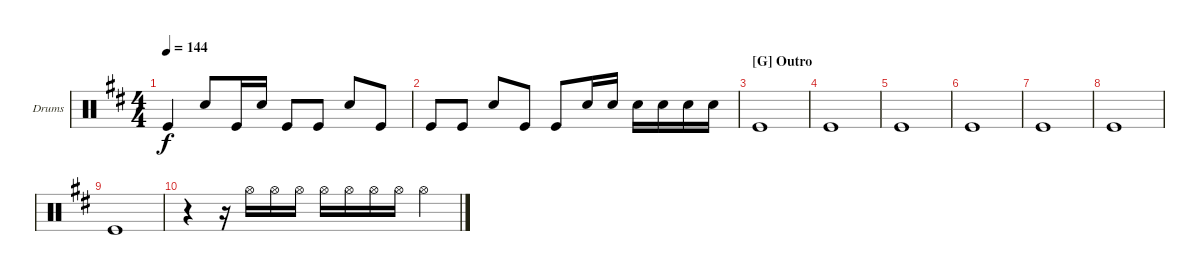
\defaultSystemsLayout 4
\bracketExtendMode groupsimilarinstruments
\firstSystemTrackNameOrientation horizontal
\otherSystemsTrackNameOrientation horizontal
\track ("Drumkit" "Drums") {instrument percussion}
\staff {score}
\articulation defaults
\ts (4 4)
\tempo 144
\clef neutral
\scale
1.05044
\ks d "Kick (hit)".4{dy f} "Snare (hit) 2".8 "Kick (hit)".16 "Snare (hit) 2".16 "Kick (hit)".8 "Kick (hit)".8 "Snare (hit) 2".8 "Kick (hit)".8
|
\scale
0.949559 "Kick (hit)".8 "Kick (hit)".8 "Snare (hit) 2".8 "Kick (hit)".8 "Kick (hit)".8 "Snare (hit) 2".16 "Snare (hit) 2".16 "Snare (hit) 2".16 "Snare (hit) 2".16 "Snare (hit) 2".16 "Snare (hit) 2".16 |
\section ("G" "Outro")
\scale
1.05044 "Kick (hit)".1 |
\scale
0.949559 "Kick (hit)".1 |
\scale
1.05044 "Kick (hit)".1 |
\scale
0.949559 "Kick (hit)".1 |
\scale
1.05044 "Kick (hit)".1 |
\scale
0.949559 "Kick (hit)".1 |
\scale
1.05044 "Kick (hit)".1 |
\scale
0.949559 r.4 r.16 "Hi-Hat (open)".16 "Hi-Hat (open)".16 "Hi-Hat (open)".16 "Hi-Hat (open)".16 "Hi-Hat (open)".16 "Hi-Hat (open)".16 "Hi-Hat (open)".16 "Hi-Hat (open)".4
